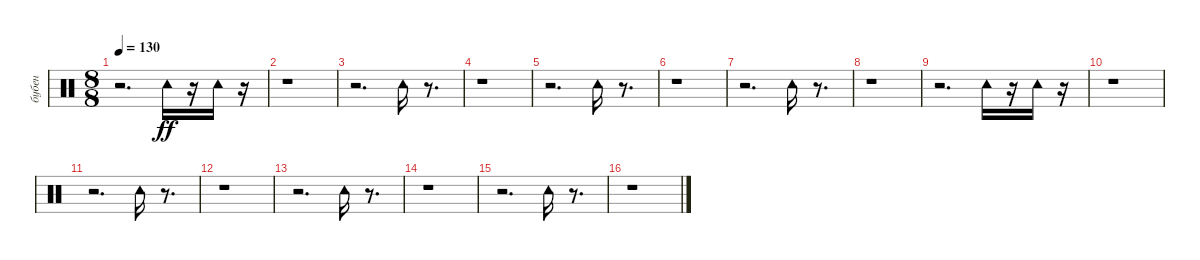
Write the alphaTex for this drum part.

\track ("бубен" "бубен") {instrument percussion}
\staff {score}
\articulation defaults
\ts (8 8)
\tempo 130
\clef neutral
\ks c
r.2{d dy ff} "Tambourine (hit)".16 r.16 "Tambourine (hit)".16 r.16 |
r.1 |
r.2{d} "Tambourine (hit)".16 r.8{d} |
r.1 |
r.2{d} "Tambourine (hit)".16 r.8{d} |
r.1 |
r.2{d} "Tambourine (hit)".16 r.8{d} |
r.1 |
r.2{d} "Tambourine (hit)".16 r.16 "Tambourine (hit)".16 r.16 |
r.1 |
r.2{d} "Tambourine (hit)".16 r.8{d} |
r.1 |
r.2{d} "Tambourine (hit)".16 r.8{d} |
r.1 |
r.2{d} "Tambourine (hit)".16 r.8{d} |
r.1
